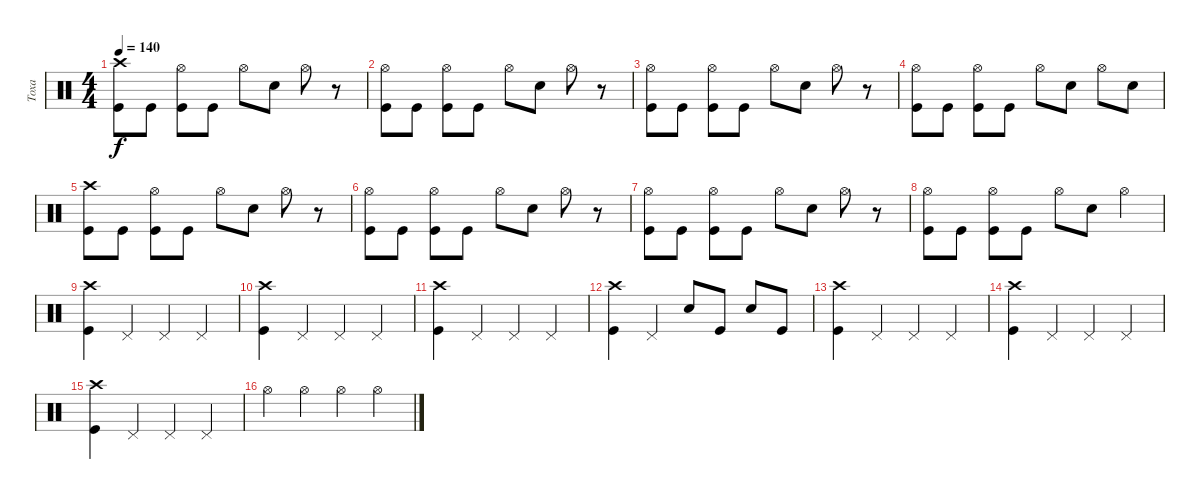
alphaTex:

\track ("Тоха" "Тоха") {instrument percussion}
\staff {score}
\articulation defaults
\ts (4 4)
\tempo 140
\clef neutral
\ks c
("Kick (hit)" "Crash high (hit)").8{dy f} "Kick (hit)".8 ("Kick (hit)" "Hi-Hat (open)").8 "Kick (hit)".8 "Hi-Hat (open)".8 "Snare (hit) 2".8 "Hi-Hat (open)".8 r.8 |
("Kick (hit)" "Hi-Hat (open)").8 "Kick (hit)".8 ("Kick (hit)" "Hi-Hat (open)").8 "Kick (hit)".8 "Hi-Hat (open)".8 "Snare (hit) 2".8 "Hi-Hat (open)".8 r.8 |
("Kick (hit)" "Hi-Hat (open)").8 "Kick (hit)".8 ("Kick (hit)" "Hi-Hat (open)").8 "Kick (hit)".8 "Hi-Hat (open)".8 "Snare (hit) 2".8 "Hi-Hat (open)".8 r.8 |
("Kick (hit)" "Hi-Hat (open)").8 "Kick (hit)".8 ("Kick (hit)" "Hi-Hat (open)").8 "Kick (hit)".8 "Hi-Hat (open)".8 "Snare (hit) 2".8 "Hi-Hat (open)".8 "Snare (hit) 2".8 |
("Kick (hit)" "Crash high (hit)").8 "Kick (hit)".8 ("Kick (hit)" "Hi-Hat (open)").8 "Kick (hit)".8 "Hi-Hat (open)".8 "Snare (hit) 2".8 "Hi-Hat (open)".8 r.8 |
("Kick (hit)" "Hi-Hat (open)").8 "Kick (hit)".8 ("Kick (hit)" "Hi-Hat (open)").8 "Kick (hit)".8 "Hi-Hat (open)".8 "Snare (hit) 2".8 "Hi-Hat (open)".8 r.8 |
("Kick (hit)" "Hi-Hat (open)").8 "Kick (hit)".8 ("Kick (hit)" "Hi-Hat (open)").8 "Kick (hit)".8 "Hi-Hat (open)".8 "Snare (hit) 2".8 "Hi-Hat (open)".8 r.8 |
("Kick (hit)" "Hi-Hat (open)").8 "Kick (hit)".8 ("Kick (hit)" "Hi-Hat (open)").8 "Kick (hit)".8 "Hi-Hat (open)".8 "Snare (hit) 2".8 "Hi-Hat (open)".4 |
("Kick (hit)" "Crash high (hit)").4 "Pedal Hi-Hat (hit)".4 "Pedal Hi-Hat (hit)".4 "Pedal Hi-Hat (hit)".4 |
("Kick (hit)" "Crash high (hit)").4 "Pedal Hi-Hat (hit)".4 "Pedal Hi-Hat (hit)".4 "Pedal Hi-Hat (hit)".4 |
("Kick (hit)" "Crash high (hit)").4 "Pedal Hi-Hat (hit)".4 "Pedal Hi-Hat (hit)".4 "Pedal Hi-Hat (hit)".4 |
("Kick (hit)" "Crash high (hit)").4 "Pedal Hi-Hat (hit)".4 "Snare (hit) 2".8 "Kick (hit)".8 "Snare (hit) 2".8 "Kick (hit)".8 |
("Kick (hit)" "Crash high (hit)").4 "Pedal Hi-Hat (hit)".4 "Pedal Hi-Hat (hit)".4 "Pedal Hi-Hat (hit)".4 |
("Kick (hit)" "Crash high (hit)").4 "Pedal Hi-Hat (hit)".4 "Pedal Hi-Hat (hit)".4 "Pedal Hi-Hat (hit)".4 |
("Kick (hit)" "Crash high (hit)").4 "Pedal Hi-Hat (hit)".4 "Pedal Hi-Hat (hit)".4 "Pedal Hi-Hat (hit)".4 |
"Hi-Hat (open)".4 "Hi-Hat (open)".4 "Hi-Hat (open)".4 "Hi-Hat (open)".4
